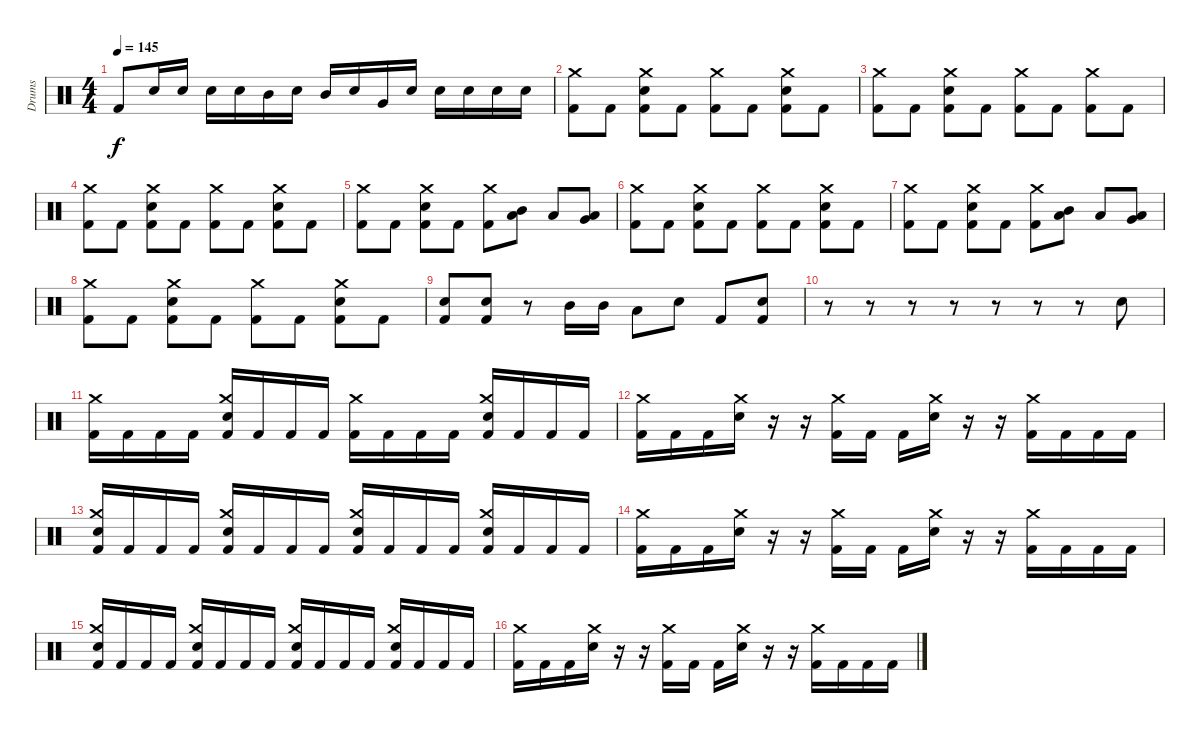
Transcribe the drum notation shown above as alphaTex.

\track ("Drums" "Drums") {instrument percussion}
\staff {score}
\articulation defaults
\ts (4 4)
\tempo 145
\clef neutral
\ks c "Kick (hit) 2".8{dy f} "Electric Snare (hit)".16 "Electric Snare (hit)".16 "Electric Snare (hit)".16 "Electric Snare (hit)".16 "Mid Tom (hit)".16 "Electric Snare (hit)".16 "Mid Tom (hit)".16 "Electric Snare (hit)".16 "Very Low Tom (hit)".16 "Electric Snare (hit)".16 "Electric Snare (hit)".16 "Electric Snare (hit)".16 "Electric Snare (hit)".16 "Electric Snare (hit)".16
|
("Crash medium (hit)" "Kick (hit) 2").8 "Kick (hit) 2".8 ("Crash medium (hit)" "Electric Snare (hit)" "Kick (hit) 2").8 "Kick (hit) 2".8 ("Crash medium (hit)" "Kick (hit) 2").8 "Kick (hit) 2".8 ("Crash medium (hit)" "Electric Snare (hit)" "Kick (hit) 2").8 "Kick (hit) 2".8 |
("Crash medium (hit)" "Kick (hit) 2").8 "Kick (hit) 2".8 ("Crash medium (hit)" "Electric Snare (hit)" "Kick (hit) 2").8 "Kick (hit) 2".8 ("Crash medium (hit)" "Kick (hit) 2").8 "Kick (hit) 2".8 ("Crash medium (hit)" "Kick (hit) 2").8 "Kick (hit) 2".8 |
("Crash medium (hit)" "Kick (hit) 2").8 "Kick (hit) 2".8 ("Crash medium (hit)" "Electric Snare (hit)" "Kick (hit) 2").8 "Kick (hit) 2".8 ("Crash medium (hit)" "Kick (hit) 2").8 "Kick (hit) 2".8 ("Crash medium (hit)" "Electric Snare (hit)" "Kick (hit) 2").8 "Kick (hit) 2".8 |
("Crash medium (hit)" "Kick (hit) 2").8 "Kick (hit) 2".8 ("Crash medium (hit)" "Electric Snare (hit)" "Kick (hit) 2").8 "Kick (hit) 2".8 ("Crash medium (hit)" "Kick (hit) 2").8 ("Mid Tom (hit)" "Low Tom (hit)").8 "Low Tom (hit)".8 ("Very Low Tom (hit)" "Low Floor Tom (hit)").8 |
("Crash medium (hit)" "Kick (hit) 2").8 "Kick (hit) 2".8 ("Crash medium (hit)" "Electric Snare (hit)" "Kick (hit) 2").8 "Kick (hit) 2".8 ("Crash medium (hit)" "Kick (hit) 2").8 "Kick (hit) 2".8 ("Crash medium (hit)" "Electric Snare (hit)" "Kick (hit) 2").8 "Kick (hit) 2".8 |
("Crash medium (hit)" "Kick (hit) 2").8 "Kick (hit) 2".8 ("Crash medium (hit)" "Electric Snare (hit)" "Kick (hit) 2").8 "Kick (hit) 2".8 ("Crash medium (hit)" "Kick (hit) 2").8 ("Mid Tom (hit)" "Low Tom (hit)").8 "Low Tom (hit)".8 ("Very Low Tom (hit)" "Low Floor Tom (hit)").8 |
("Crash medium (hit)" "Kick (hit) 2").8 "Kick (hit) 2".8 ("Crash medium (hit)" "Electric Snare (hit)" "Kick (hit) 2").8 "Kick (hit) 2".8 ("Crash medium (hit)" "Kick (hit) 2").8 "Kick (hit) 2".8 ("Crash medium (hit)" "Electric Snare (hit)" "Kick (hit) 2").8 "Kick (hit) 2".8 |
("Electric Snare (hit)" "Kick (hit) 2").8 ("Electric Snare (hit)" "Kick (hit) 2").8 r.8 "Mid Tom (hit)".16 "Mid Tom (hit)".16 "Low Tom (hit)".8 "Electric Snare (hit)".8 "Kick (hit) 2".8 ("Electric Snare (hit)" "Kick (hit) 2").8 |
r.8 r.8 r.8 r.8 r.8 r.8 r.8 "Electric Snare (hit)".8 |
("Crash medium (hit)" "Kick (hit) 2").16 "Kick (hit) 2".16 "Kick (hit) 2".16 "Kick (hit) 2".16 ("Crash medium (hit)" "Snare (hit) 2" "Kick (hit) 2").16 "Kick (hit) 2".16 "Kick (hit) 2".16 "Kick (hit) 2".16 ("Crash medium (hit)" "Kick (hit) 2").16 "Kick (hit) 2".16 "Kick (hit) 2".16 "Kick (hit) 2".16 ("Crash medium (hit)" "Snare (hit) 2" "Kick (hit) 2").16 "Kick (hit) 2".16 "Kick (hit) 2".16 "Kick (hit) 2".16 |
("Crash medium (hit)" "Kick (hit) 2").16 "Kick (hit) 2".16 "Kick (hit) 2".16 ("Crash medium (hit)" "Snare (hit) 2").16 r.16 r.16 ("Crash medium (hit)" "Kick (hit) 2").16 "Kick (hit) 2".16 "Kick (hit) 2".16 ("Crash medium (hit)" "Snare (hit) 2").16 r.16 r.16 ("Crash medium (hit)" "Kick (hit) 2").16 "Kick (hit) 2".16 "Kick (hit) 2".16 "Kick (hit) 2".16 |
("Crash medium (hit)" "Snare (hit) 2" "Kick (hit) 2").16 "Kick (hit) 2".16 "Kick (hit) 2".16 "Kick (hit) 2".16 ("Crash medium (hit)" "Snare (hit) 2" "Kick (hit) 2").16 "Kick (hit) 2".16 "Kick (hit) 2".16 "Kick (hit) 2".16 ("Crash medium (hit)" "Snare (hit) 2" "Kick (hit) 2").16 "Kick (hit) 2".16 "Kick (hit) 2".16 "Kick (hit) 2".16 ("Crash medium (hit)" "Snare (hit) 2" "Kick (hit) 2").16 "Kick (hit) 2".16 "Kick (hit) 2".16 "Kick (hit) 2".16 |
("Crash medium (hit)" "Kick (hit) 2").16 "Kick (hit) 2".16 "Kick (hit) 2".16 ("Crash medium (hit)" "Snare (hit) 2").16 r.16 r.16 ("Crash medium (hit)" "Kick (hit) 2").16 "Kick (hit) 2".16 "Kick (hit) 2".16 ("Crash medium (hit)" "Snare (hit) 2").16 r.16 r.16 ("Crash medium (hit)" "Kick (hit) 2").16 "Kick (hit) 2".16 "Kick (hit) 2".16 "Kick (hit) 2".16 |
("Crash medium (hit)" "Snare (hit) 2" "Kick (hit) 2").16 "Kick (hit) 2".16 "Kick (hit) 2".16 "Kick (hit) 2".16 ("Crash medium (hit)" "Snare (hit) 2" "Kick (hit) 2").16 "Kick (hit) 2".16 "Kick (hit) 2".16 "Kick (hit) 2".16 ("Crash medium (hit)" "Snare (hit) 2" "Kick (hit) 2").16 "Kick (hit) 2".16 "Kick (hit) 2".16 "Kick (hit) 2".16 ("Crash medium (hit)" "Snare (hit) 2" "Kick (hit) 2").16 "Kick (hit) 2".16 "Kick (hit) 2".16 "Kick (hit) 2".16 |
("Crash medium (hit)" "Kick (hit) 2").16 "Kick (hit) 2".16 "Kick (hit) 2".16 ("Crash medium (hit)" "Snare (hit) 2").16 r.16 r.16 ("Crash medium (hit)" "Kick (hit) 2").16 "Kick (hit) 2".16 "Kick (hit) 2".16 ("Crash medium (hit)" "Snare (hit) 2").16 r.16 r.16 ("Crash medium (hit)" "Kick (hit) 2").16 "Kick (hit) 2".16 "Kick (hit) 2".16 "Kick (hit) 2".16
